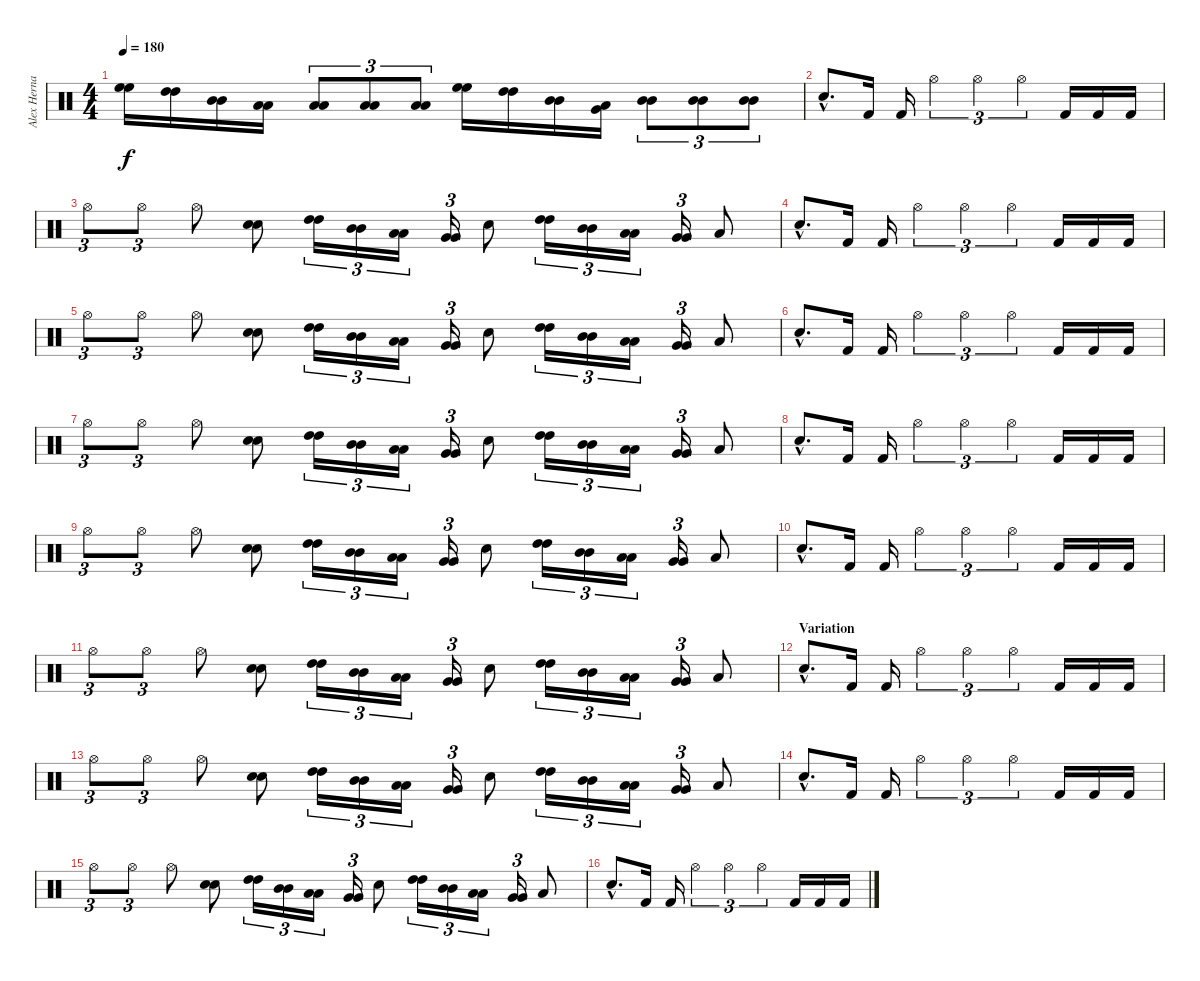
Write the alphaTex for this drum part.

\track ("Alex Hernandez" "Alex Herna") {instrument percussion}
\staff {score}
\articulation defaults
\ts (4 4)
\tempo 180
\clef neutral
\ks c
("High Floor Tom (hit)" "High Floor Tom (hit)").16{dy f} ("High Tom (hit)" "High Tom (hit)").16 ("Mid Tom (hit)" "Mid Tom (hit)").16 ("Low Tom (hit)" "Low Tom (hit)").16 ("Low Tom (hit)" "Low Tom (hit)").8{tu (3 2)} ("Low Tom (hit)" "Low Tom (hit)").8{tu (3 2)} ("Low Tom (hit)" "Low Tom (hit)").8{tu (3 2)} ("High Floor Tom (hit)" "High Floor Tom (hit)").16 ("High Tom (hit)" "High Tom (hit)").16 ("Mid Tom (hit)" "Mid Tom (hit)").16 ("Very Low Tom (hit)" "Low Tom (hit)").16 ("Mid Tom (hit)" "Mid Tom (hit)").8{tu (3 2)} ("Mid Tom (hit)" "Mid Tom (hit)").8{tu (3 2)} ("Mid Tom (hit)" "Mid Tom (hit)").8{tu (3 2)} |
"Snare (hit) 2"{hac}.8{d} "Kick (hit) 2".16 "Kick (hit) 2".16 "Hi-Hat (open)".4{tu (3 2)} "Hi-Hat (open)".4{tu (3 2)} "Hi-Hat (open)".4{tu (3 2)} "Kick (hit) 2".16 "Kick (hit) 2".16 "Kick (hit) 2".16 |
"Hi-Hat (open)".8{tu (3 2)} "Hi-Hat (open)".8{tu (3 2)} "Hi-Hat (open)".8 ("Snare (hit) 2" "Snare (hit) 2").8 ("High Tom (hit)" "High Tom (hit)").16{tu (3 2)} ("Mid Tom (hit)" "Mid Tom (hit)").16{tu (3 2)} ("Low Tom (hit)" "Low Tom (hit)").16{tu (3 2)} ("Very Low Tom (hit)" "Very Low Tom (hit)").16{tu (3 2)} "Snare (hit) 2".8 ("High Tom (hit)" "High Tom (hit)").16{tu (3 2)} ("Mid Tom (hit)" "Mid Tom (hit)").16{tu (3 2)} ("Low Tom (hit)" "Low Tom (hit)").16{tu (3 2)} ("Very Low Tom (hit)" "Very Low Tom (hit)").16{tu (3 2)} "Low Tom (hit)".8 |
"Snare (hit) 2"{hac}.8{d} "Kick (hit) 2".16 "Kick (hit) 2".16 "Hi-Hat (open)".4{tu (3 2)} "Hi-Hat (open)".4{tu (3 2)} "Hi-Hat (open)".4{tu (3 2)} "Kick (hit) 2".16 "Kick (hit) 2".16 "Kick (hit) 2".16 |
"Hi-Hat (open)".8{tu (3 2)} "Hi-Hat (open)".8{tu (3 2)} "Hi-Hat (open)".8 ("Snare (hit) 2" "Snare (hit) 2").8 ("High Tom (hit)" "High Tom (hit)").16{tu (3 2)} ("Mid Tom (hit)" "Mid Tom (hit)").16{tu (3 2)} ("Low Tom (hit)" "Low Tom (hit)").16{tu (3 2)} ("Very Low Tom (hit)" "Very Low Tom (hit)").16{tu (3 2)} "Snare (hit) 2".8 ("High Tom (hit)" "High Tom (hit)").16{tu (3 2)} ("Mid Tom (hit)" "Mid Tom (hit)").16{tu (3 2)} ("Low Tom (hit)" "Low Tom (hit)").16{tu (3 2)} ("Very Low Tom (hit)" "Very Low Tom (hit)").16{tu (3 2)} "Low Tom (hit)".8 |
"Snare (hit) 2"{hac}.8{d} "Kick (hit) 2".16 "Kick (hit) 2".16 "Hi-Hat (open)".4{tu (3 2)} "Hi-Hat (open)".4{tu (3 2)} "Hi-Hat (open)".4{tu (3 2)} "Kick (hit) 2".16 "Kick (hit) 2".16 "Kick (hit) 2".16 |
"Hi-Hat (open)".8{tu (3 2)} "Hi-Hat (open)".8{tu (3 2)} "Hi-Hat (open)".8 ("Snare (hit) 2" "Snare (hit) 2").8 ("High Tom (hit)" "High Tom (hit)").16{tu (3 2)} ("Mid Tom (hit)" "Mid Tom (hit)").16{tu (3 2)} ("Low Tom (hit)" "Low Tom (hit)").16{tu (3 2)} ("Very Low Tom (hit)" "Very Low Tom (hit)").16{tu (3 2)} "Snare (hit) 2".8 ("High Tom (hit)" "High Tom (hit)").16{tu (3 2)} ("Mid Tom (hit)" "Mid Tom (hit)").16{tu (3 2)} ("Low Tom (hit)" "Low Tom (hit)").16{tu (3 2)} ("Very Low Tom (hit)" "Very Low Tom (hit)").16{tu (3 2)} "Low Tom (hit)".8 |
"Snare (hit) 2"{hac}.8{d} "Kick (hit) 2".16 "Kick (hit) 2".16 "Hi-Hat (open)".4{tu (3 2)} "Hi-Hat (open)".4{tu (3 2)} "Hi-Hat (open)".4{tu (3 2)} "Kick (hit) 2".16 "Kick (hit) 2".16 "Kick (hit) 2".16 |
"Hi-Hat (open)".8{tu (3 2)} "Hi-Hat (open)".8{tu (3 2)} "Hi-Hat (open)".8 ("Snare (hit) 2" "Snare (hit) 2").8 ("High Tom (hit)" "High Tom (hit)").16{tu (3 2)} ("Mid Tom (hit)" "Mid Tom (hit)").16{tu (3 2)} ("Low Tom (hit)" "Low Tom (hit)").16{tu (3 2)} ("Very Low Tom (hit)" "Very Low Tom (hit)").16{tu (3 2)} "Snare (hit) 2".8 ("High Tom (hit)" "High Tom (hit)").16{tu (3 2)} ("Mid Tom (hit)" "Mid Tom (hit)").16{tu (3 2)} ("Low Tom (hit)" "Low Tom (hit)").16{tu (3 2)} ("Very Low Tom (hit)" "Very Low Tom (hit)").16{tu (3 2)} "Low Tom (hit)".8 |
"Snare (hit) 2"{hac}.8{d} "Kick (hit) 2".16 "Kick (hit) 2".16 "Hi-Hat (open)".4{tu (3 2)} "Hi-Hat (open)".4{tu (3 2)} "Hi-Hat (open)".4{tu (3 2)} "Kick (hit) 2".16 "Kick (hit) 2".16 "Kick (hit) 2".16 |
"Hi-Hat (open)".8{tu (3 2)} "Hi-Hat (open)".8{tu (3 2)} "Hi-Hat (open)".8 ("Snare (hit) 2" "Snare (hit) 2").8 ("High Tom (hit)" "High Tom (hit)").16{tu (3 2)} ("Mid Tom (hit)" "Mid Tom (hit)").16{tu (3 2)} ("Low Tom (hit)" "Low Tom (hit)").16{tu (3 2)} ("Very Low Tom (hit)" "Very Low Tom (hit)").16{tu (3 2)} "Snare (hit) 2".8 ("High Tom (hit)" "High Tom (hit)").16{tu (3 2)} ("Mid Tom (hit)" "Mid Tom (hit)").16{tu (3 2)} ("Low Tom (hit)" "Low Tom (hit)").16{tu (3 2)} ("Very Low Tom (hit)" "Very Low Tom (hit)").16{tu (3 2)} "Low Tom (hit)".8 |
\section ("" "Variation")
"Snare (hit) 2"{hac}.8{d} "Kick (hit) 2".16 "Kick (hit) 2".16 "Hi-Hat (open)".4{tu (3 2)} "Hi-Hat (open)".4{tu (3 2)} "Hi-Hat (open)".4{tu (3 2)} "Kick (hit) 2".16 "Kick (hit) 2".16 "Kick (hit) 2".16 |
"Hi-Hat (open)".8{tu (3 2)} "Hi-Hat (open)".8{tu (3 2)} "Hi-Hat (open)".8 ("Snare (hit) 2" "Snare (hit) 2").8 ("High Tom (hit)" "High Tom (hit)").16{tu (3 2)} ("Mid Tom (hit)" "Mid Tom (hit)").16{tu (3 2)} ("Low Tom (hit)" "Low Tom (hit)").16{tu (3 2)} ("Very Low Tom (hit)" "Very Low Tom (hit)").16{tu (3 2)} "Snare (hit) 2".8 ("High Tom (hit)" "High Tom (hit)").16{tu (3 2)} ("Mid Tom (hit)" "Mid Tom (hit)").16{tu (3 2)} ("Low Tom (hit)" "Low Tom (hit)").16{tu (3 2)} ("Very Low Tom (hit)" "Very Low Tom (hit)").16{tu (3 2)} "Low Tom (hit)".8 |
"Snare (hit) 2"{hac}.8{d} "Kick (hit) 2".16 "Kick (hit) 2".16 "Hi-Hat (open)".4{tu (3 2)} "Hi-Hat (open)".4{tu (3 2)} "Hi-Hat (open)".4{tu (3 2)} "Kick (hit) 2".16 "Kick (hit) 2".16 "Kick (hit) 2".16 |
"Hi-Hat (open)".8{tu (3 2)} "Hi-Hat (open)".8{tu (3 2)} "Hi-Hat (open)".8 ("Snare (hit) 2" "Snare (hit) 2").8 ("High Tom (hit)" "High Tom (hit)").16{tu (3 2)} ("Mid Tom (hit)" "Mid Tom (hit)").16{tu (3 2)} ("Low Tom (hit)" "Low Tom (hit)").16{tu (3 2)} ("Very Low Tom (hit)" "Very Low Tom (hit)").16{tu (3 2)} "Snare (hit) 2".8 ("High Tom (hit)" "High Tom (hit)").16{tu (3 2)} ("Mid Tom (hit)" "Mid Tom (hit)").16{tu (3 2)} ("Low Tom (hit)" "Low Tom (hit)").16{tu (3 2)} ("Very Low Tom (hit)" "Very Low Tom (hit)").16{tu (3 2)} "Low Tom (hit)".8 |
"Snare (hit) 2"{hac}.8{d} "Kick (hit) 2".16 "Kick (hit) 2".16 "Hi-Hat (open)".4{tu (3 2)} "Hi-Hat (open)".4{tu (3 2)} "Hi-Hat (open)".4{tu (3 2)} "Kick (hit) 2".16 "Kick (hit) 2".16 "Kick (hit) 2".16
